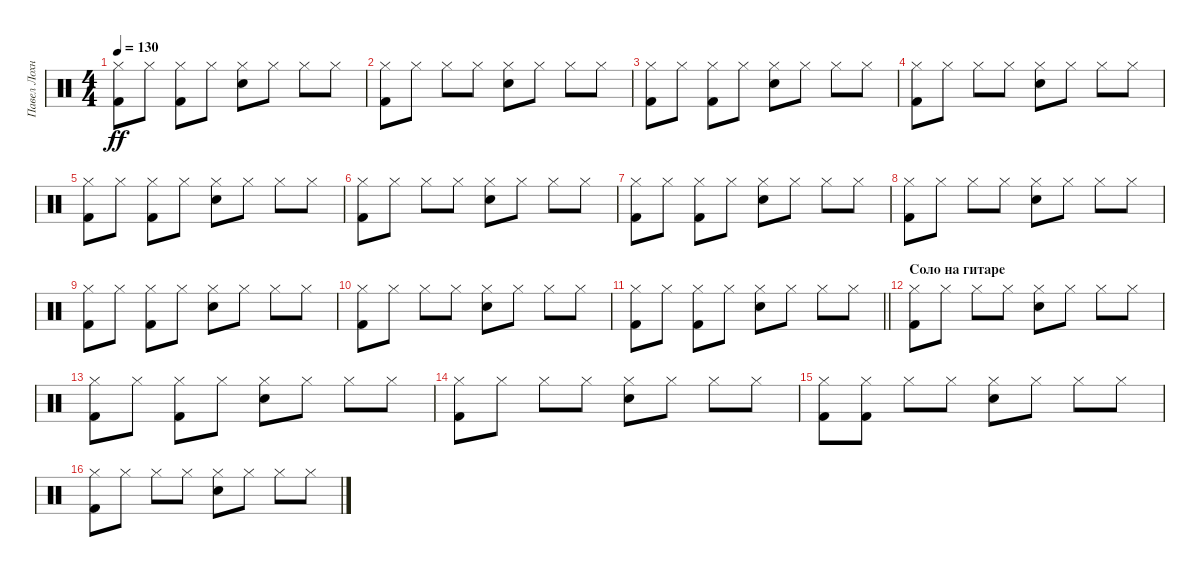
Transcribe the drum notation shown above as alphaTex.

\track ("Павел Лохнин" "Павел Лохн") {instrument percussion}
\staff {score}
\articulation defaults
\ts (4 4)
\tempo 130
\clef neutral
\ks c
("Hi-Hat (closed)" "Kick (hit) 2").8{dy ff} "Hi-Hat (closed)".8 ("Hi-Hat (closed)" "Kick (hit) 2").8 "Hi-Hat (closed)".8 ("Hi-Hat (closed)" "Electric Snare (hit)").8 "Hi-Hat (closed)".8 "Hi-Hat (closed)".8 "Hi-Hat (closed)".8 |
("Hi-Hat (closed)" "Kick (hit) 2").8 "Hi-Hat (closed)".8 "Hi-Hat (closed)".8 "Hi-Hat (closed)".8 ("Hi-Hat (closed)" "Electric Snare (hit)").8 "Hi-Hat (closed)".8 "Hi-Hat (closed)".8 "Hi-Hat (closed)".8 |
("Hi-Hat (closed)" "Kick (hit) 2").8 "Hi-Hat (closed)".8 ("Hi-Hat (closed)" "Kick (hit) 2").8 "Hi-Hat (closed)".8 ("Hi-Hat (closed)" "Electric Snare (hit)").8 "Hi-Hat (closed)".8 "Hi-Hat (closed)".8 "Hi-Hat (closed)".8 |
("Hi-Hat (closed)" "Kick (hit) 2").8 "Hi-Hat (closed)".8 "Hi-Hat (closed)".8 "Hi-Hat (closed)".8 ("Hi-Hat (closed)" "Electric Snare (hit)").8 "Hi-Hat (closed)".8 "Hi-Hat (closed)".8 "Hi-Hat (closed)".8 |
("Hi-Hat (closed)" "Kick (hit) 2").8 "Hi-Hat (closed)".8 ("Hi-Hat (closed)" "Kick (hit) 2").8 "Hi-Hat (closed)".8 ("Hi-Hat (closed)" "Electric Snare (hit)").8 "Hi-Hat (closed)".8 "Hi-Hat (closed)".8 "Hi-Hat (closed)".8 |
("Hi-Hat (closed)" "Kick (hit) 2").8 "Hi-Hat (closed)".8 "Hi-Hat (closed)".8 "Hi-Hat (closed)".8 ("Hi-Hat (closed)" "Electric Snare (hit)").8 "Hi-Hat (closed)".8 "Hi-Hat (closed)".8 "Hi-Hat (closed)".8 |
("Hi-Hat (closed)" "Kick (hit) 2").8 "Hi-Hat (closed)".8 ("Hi-Hat (closed)" "Kick (hit) 2").8 "Hi-Hat (closed)".8 ("Hi-Hat (closed)" "Electric Snare (hit)").8 "Hi-Hat (closed)".8 "Hi-Hat (closed)".8 "Hi-Hat (closed)".8 |
("Hi-Hat (closed)" "Kick (hit) 2").8 "Hi-Hat (closed)".8 "Hi-Hat (closed)".8 "Hi-Hat (closed)".8 ("Hi-Hat (closed)" "Electric Snare (hit)").8 "Hi-Hat (closed)".8 "Hi-Hat (closed)".8 "Hi-Hat (closed)".8 |
("Hi-Hat (closed)" "Kick (hit) 2").8 "Hi-Hat (closed)".8 ("Hi-Hat (closed)" "Kick (hit) 2").8 "Hi-Hat (closed)".8 ("Hi-Hat (closed)" "Electric Snare (hit)").8 "Hi-Hat (closed)".8 "Hi-Hat (closed)".8 "Hi-Hat (closed)".8 |
("Hi-Hat (closed)" "Kick (hit) 2").8 "Hi-Hat (closed)".8 "Hi-Hat (closed)".8 "Hi-Hat (closed)".8 ("Hi-Hat (closed)" "Electric Snare (hit)").8 "Hi-Hat (closed)".8 "Hi-Hat (closed)".8 "Hi-Hat (closed)".8 |
\barLineRight lightlight
("Hi-Hat (closed)" "Kick (hit) 2").8 "Hi-Hat (closed)".8 ("Hi-Hat (closed)" "Kick (hit) 2").8 "Hi-Hat (closed)".8 ("Hi-Hat (closed)" "Electric Snare (hit)").8 "Hi-Hat (closed)".8 "Hi-Hat (closed)".8 "Hi-Hat (closed)".8 |
\section ("" "Соло на гитаре")
("Hi-Hat (closed)" "Kick (hit) 2").8 "Hi-Hat (closed)".8 "Hi-Hat (closed)".8 "Hi-Hat (closed)".8 ("Hi-Hat (closed)" "Electric Snare (hit)").8 "Hi-Hat (closed)".8 "Hi-Hat (closed)".8 "Hi-Hat (closed)".8 |
("Hi-Hat (closed)" "Kick (hit) 2").8 "Hi-Hat (closed)".8 ("Hi-Hat (closed)" "Kick (hit) 2").8 "Hi-Hat (closed)".8 ("Hi-Hat (closed)" "Electric Snare (hit)").8 "Hi-Hat (closed)".8 "Hi-Hat (closed)".8 "Hi-Hat (closed)".8 |
("Hi-Hat (closed)" "Kick (hit) 2").8 "Hi-Hat (closed)".8 "Hi-Hat (closed)".8 "Hi-Hat (closed)".8 ("Hi-Hat (closed)" "Electric Snare (hit)").8 "Hi-Hat (closed)".8 "Hi-Hat (closed)".8 "Hi-Hat (closed)".8 |
("Hi-Hat (closed)" "Kick (hit) 2").8 ("Hi-Hat (closed)" "Kick (hit) 2").8 "Hi-Hat (closed)".8 "Hi-Hat (closed)".8 ("Hi-Hat (closed)" "Electric Snare (hit)").8 "Hi-Hat (closed)".8 "Hi-Hat (closed)".8 "Hi-Hat (closed)".8 |
("Hi-Hat (closed)" "Kick (hit) 2").8 "Hi-Hat (closed)".8 "Hi-Hat (closed)".8 "Hi-Hat (closed)".8 ("Hi-Hat (closed)" "Electric Snare (hit)").8 "Hi-Hat (closed)".8 "Hi-Hat (closed)".8 "Hi-Hat (closed)".8
